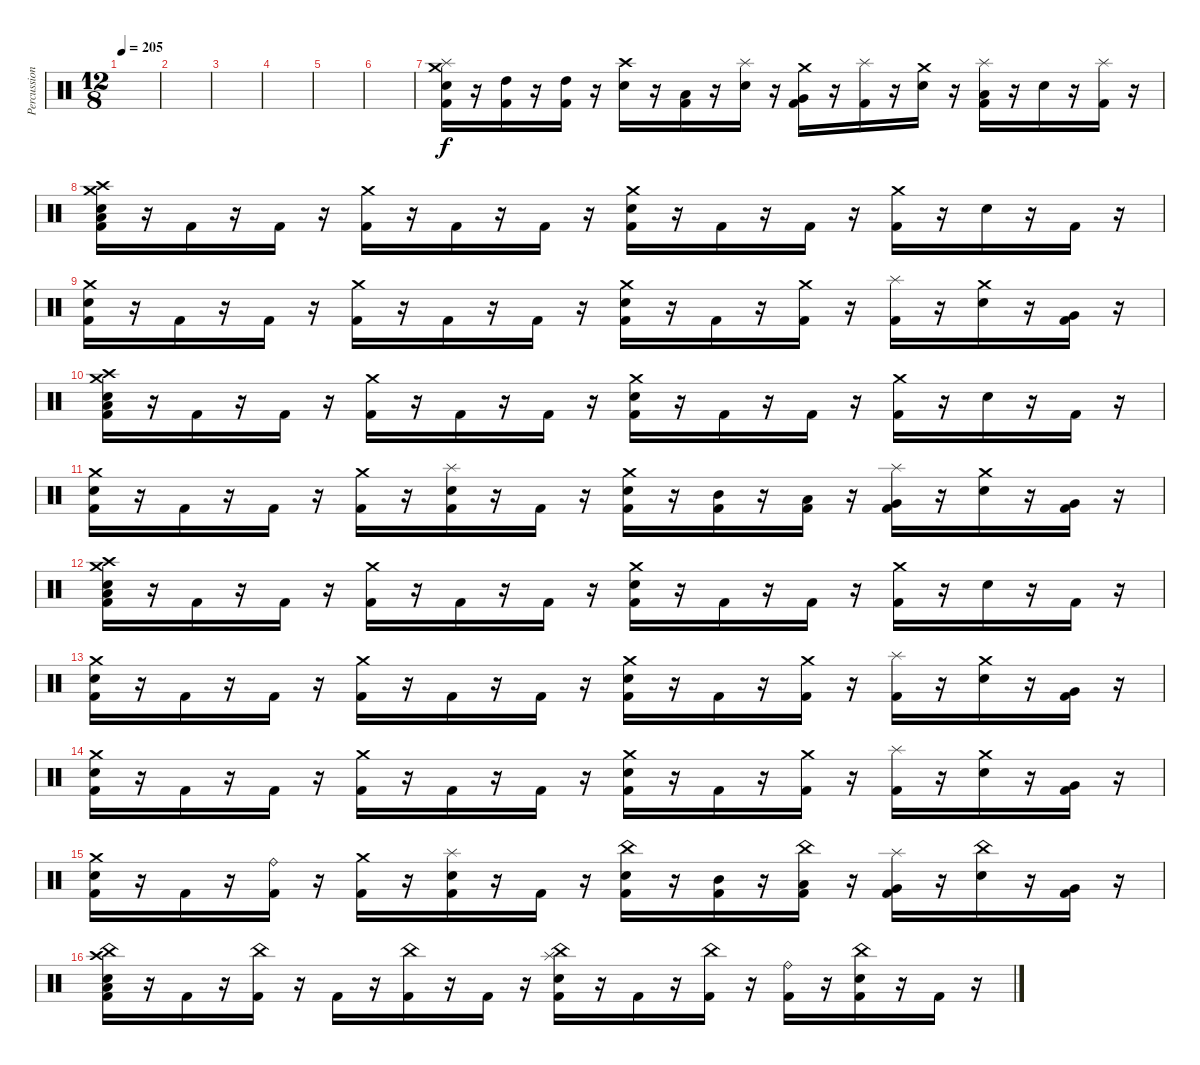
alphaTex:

\track ("Percussion" "Percussion") {instrument percussion}
\staff {score}
\articulation defaults
\ts (12 8)
\tempo 205
\clef neutral
\ks c
|
|
|
|
|
|
("Crash medium (hit)" "Splash (hit)" "Electric Snare (hit)" "Kick (hit) 2").16 r.16 ("High Tom (hit)" "Kick (hit) 2").16 r.16 ("High Tom (hit)" "Kick (hit) 2").16 r.16 ("Crash high (hit)" "Electric Snare (hit)").16 r.16 ("Low Tom (hit)" "Kick (hit) 2").16 r.16 ("Splash (hit)" "Electric Snare (hit)").16 r.16 ("Crash medium (hit)" "Very Low Tom (hit)" "Kick (hit) 2").16 r.16 ("Splash (hit)" "Kick (hit) 2").16 r.16 ("Crash medium (hit)" "Electric Snare (hit)").16 r.16 ("Splash (hit)" "Low Floor Tom (hit)" "Kick (hit) 2").16 r.16 "Electric Snare (hit)".16 r.16 ("Splash (hit)" "Kick (hit) 2").16 r.16 |
("Crash high (hit)" "Crash medium (hit)" "Electric Snare (hit)" "Low Floor Tom (hit)" "Kick (hit) 2").16 r.16 "Kick (hit) 2".16 r.16 "Kick (hit) 2".16 r.16 ("Crash medium (hit)" "Kick (hit) 2").16 r.16 "Kick (hit) 2".16 r.16 "Kick (hit) 2".16 r.16 ("Crash medium (hit)" "Electric Snare (hit)" "Kick (hit) 2").16 r.16 "Kick (hit) 2".16 r.16 "Kick (hit) 2".16 r.16 ("Crash medium (hit)" "Kick (hit) 2").16 r.16 "Electric Snare (hit)".16 r.16 "Kick (hit) 2".16 r.16 |
("Crash medium (hit)" "Electric Snare (hit)" "Kick (hit) 2").16 r.16 "Kick (hit) 2".16 r.16 "Kick (hit) 2".16 r.16 ("Crash medium (hit)" "Kick (hit) 2").16 r.16 "Kick (hit) 2".16 r.16 "Kick (hit) 2".16 r.16 ("Crash medium (hit)" "Electric Snare (hit)" "Kick (hit) 2").16 r.16 "Kick (hit) 2".16 r.16 ("Crash medium (hit)" "Kick (hit) 2").16 r.16 ("Splash (hit)" "Kick (hit) 2").16 r.16 ("Crash medium (hit)" "Electric Snare (hit)").16 r.16 ("Very Low Tom (hit)" "Kick (hit) 2").16 r.16 |
("Crash high (hit)" "Crash medium (hit)" "Electric Snare (hit)" "Low Floor Tom (hit)" "Kick (hit) 2").16 r.16 "Kick (hit) 2".16 r.16 "Kick (hit) 2".16 r.16 ("Crash medium (hit)" "Kick (hit) 2").16 r.16 "Kick (hit) 2".16 r.16 "Kick (hit) 2".16 r.16 ("Crash medium (hit)" "Electric Snare (hit)" "Kick (hit) 2").16 r.16 "Kick (hit) 2".16 r.16 "Kick (hit) 2".16 r.16 ("Crash medium (hit)" "Kick (hit) 2").16 r.16 "Electric Snare (hit)".16 r.16 "Kick (hit) 2".16 r.16 |
("Crash medium (hit)" "Electric Snare (hit)" "Kick (hit) 2").16 r.16 "Kick (hit) 2".16 r.16 "Kick (hit) 2".16 r.16 ("Crash medium (hit)" "Kick (hit) 2").16 r.16 ("Splash (hit)" "Electric Snare (hit)" "Kick (hit) 2").16 r.16 "Kick (hit) 2".16 r.16 ("Crash medium (hit)" "Electric Snare (hit)" "Kick (hit) 2").16 r.16 ("Mid Tom (hit)" "Kick (hit) 2").16 r.16 ("Low Tom (hit)" "Kick (hit) 2").16 r.16 ("Splash (hit)" "Very Low Tom (hit)" "Kick (hit) 2").16 r.16 ("Crash medium (hit)" "Electric Snare (hit)").16 r.16 ("Very Low Tom (hit)" "Kick (hit) 2").16 r.16 |
("Crash high (hit)" "Crash medium (hit)" "Electric Snare (hit)" "Low Floor Tom (hit)" "Kick (hit) 2").16 r.16 "Kick (hit) 2".16 r.16 "Kick (hit) 2".16 r.16 ("Crash medium (hit)" "Kick (hit) 2").16 r.16 "Kick (hit) 2".16 r.16 "Kick (hit) 2".16 r.16 ("Crash medium (hit)" "Electric Snare (hit)" "Kick (hit) 2").16 r.16 "Kick (hit) 2".16 r.16 "Kick (hit) 2".16 r.16 ("Crash medium (hit)" "Kick (hit) 2").16 r.16 "Electric Snare (hit)".16 r.16 "Kick (hit) 2".16 r.16 |
("Crash medium (hit)" "Electric Snare (hit)" "Kick (hit) 2").16 r.16 "Kick (hit) 2".16 r.16 "Kick (hit) 2".16 r.16 ("Crash medium (hit)" "Kick (hit) 2").16 r.16 "Kick (hit) 2".16 r.16 "Kick (hit) 2".16 r.16 ("Crash medium (hit)" "Electric Snare (hit)" "Kick (hit) 2").16 r.16 "Kick (hit) 2".16 r.16 ("Crash medium (hit)" "Kick (hit) 2").16 r.16 ("Splash (hit)" "Kick (hit) 2").16 r.16 ("Crash medium (hit)" "Electric Snare (hit)").16 r.16 ("Very Low Tom (hit)" "Kick (hit) 2").16 r.16 |
("Crash medium (hit)" "Electric Snare (hit)" "Kick (hit) 2").16 r.16 "Kick (hit) 2".16 r.16 "Kick (hit) 2".16 r.16 ("Crash medium (hit)" "Kick (hit) 2").16 r.16 "Kick (hit) 2".16 r.16 "Kick (hit) 2".16 r.16 ("Crash medium (hit)" "Electric Snare (hit)" "Kick (hit) 2").16 r.16 "Kick (hit) 2".16 r.16 ("Crash medium (hit)" "Kick (hit) 2").16 r.16 ("Splash (hit)" "Kick (hit) 2").16 r.16 ("Crash medium (hit)" "Electric Snare (hit)").16 r.16 ("Very Low Tom (hit)" "Kick (hit) 2").16 r.16 |
("Crash medium (hit)" "Electric Snare (hit)" "Kick (hit) 2").16 r.16 "Kick (hit) 2".16 r.16 ("Ride (bell)" "Kick (hit) 2").16 r.16 ("Crash medium (hit)" "Kick (hit) 2").16 r.16 ("Splash (hit)" "Electric Snare (hit)" "Kick (hit) 2").16 r.16 "Kick (hit) 2".16 r.16 ("China (hit)" "Electric Snare (hit)" "Kick (hit) 2").16 r.16 ("Mid Tom (hit)" "Kick (hit) 2").16 r.16 ("China (hit)" "Low Tom (hit)" "Kick (hit) 2").16 r.16 ("Splash (hit)" "Very Low Tom (hit)" "Kick (hit) 2").16 r.16 ("China (hit)" "Electric Snare (hit)").16 r.16 ("Very Low Tom (hit)" "Kick (hit) 2").16 r.16 |
("Crash high (hit)" "China (hit)" "Electric Snare (hit)" "Low Floor Tom (hit)" "Kick (hit) 2").16 r.16 "Kick (hit) 2".16 r.16 ("China (hit)" "Kick (hit) 2").16 r.16 "Kick (hit) 2".16 r.16 ("China (hit)" "Kick (hit) 2").16 r.16 "Kick (hit) 2".16 r.16 ("China (hit)" "Splash (hit)" "Electric Snare (hit)" "Kick (hit) 2").16 r.16 "Kick (hit) 2".16 r.16 ("China (hit)" "Kick (hit) 2").16 r.16 ("Ride (bell)" "Kick (hit) 2").16 r.16 ("China (hit)" "Electric Snare (hit)" "Kick (hit) 2").16 r.16 "Kick (hit) 2".16 r.16
